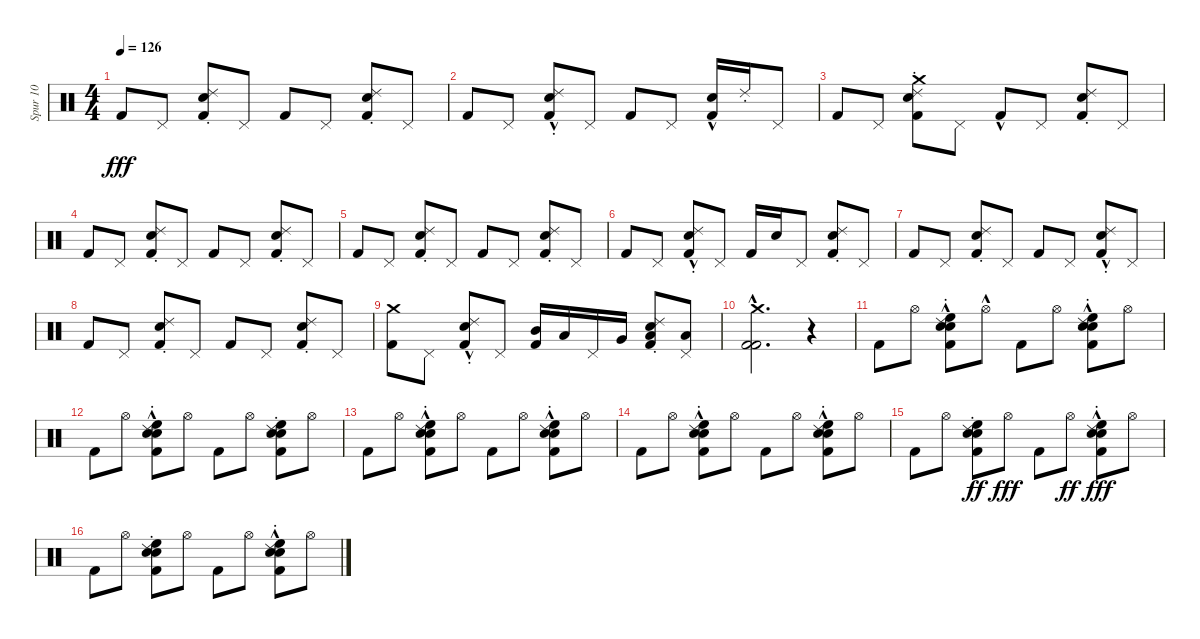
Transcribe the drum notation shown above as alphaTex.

\track ("Spur 10" "Spur 10") {instrument percussion}
\staff {score}
\articulation defaults
\ts (4 4)
\tempo 126
\clef neutral
\ks c "Kick (hit) 2".8{dy fff} "Pedal Hi-Hat (hit)".8
("Kick (hit) 2" "Ride (choke) 2" "Snare (hit) 2").8 "Pedal Hi-Hat (hit)".8 "Kick (hit) 2".8 "Pedal Hi-Hat (hit)".8 ("Snare (hit) 2" "Ride (choke) 2" "Kick (hit) 2").8 "Pedal Hi-Hat (hit)".8 |
"Kick (hit) 2".8 "Pedal Hi-Hat (hit)".8 ("Kick (hit) 2" "Ride (choke) 2"{hac} "Snare (hit) 2").8 "Pedal Hi-Hat (hit)".8 "Kick (hit) 2".8 "Pedal Hi-Hat (hit)".8 ("Snare (hit) 2" "Kick (hit) 2"{hac}).16 "Ride (choke) 2".16 "Pedal Hi-Hat (hit)".8 |
"Kick (hit) 2".8 "Pedal Hi-Hat (hit)".8 ("Kick (hit) 2" "Ride (choke) 2" "Snare (hit) 2" "Crash medium (hit)").8 "Pedal Hi-Hat (hit)".8 "Kick (hit) 2"{hac}.8 "Pedal Hi-Hat (hit)".8 ("Ride (choke) 2" "Kick (hit) 2" "Snare (hit) 2").8 "Pedal Hi-Hat (hit)".8 |
"Kick (hit) 2".8 "Pedal Hi-Hat (hit)".8 ("Ride (choke) 2" "Snare (hit) 2" "Kick (hit) 2").8 "Pedal Hi-Hat (hit)".8 "Kick (hit) 2".8 "Pedal Hi-Hat (hit)".8 ("Kick (hit) 2" "Snare (hit) 2" "Ride (choke) 2").8 "Pedal Hi-Hat (hit)".8 |
"Kick (hit) 2".8 "Pedal Hi-Hat (hit)".8 ("Snare (hit) 2" "Ride (choke) 2" "Kick (hit) 2").8 "Pedal Hi-Hat (hit)".8 "Kick (hit) 2".8 "Pedal Hi-Hat (hit)".8 ("Ride (choke) 2" "Snare (hit) 2" "Kick (hit) 2").8 "Pedal Hi-Hat (hit)".8 |
"Kick (hit) 2".8 "Pedal Hi-Hat (hit)".8 ("Kick (hit) 2" "Ride (choke) 2"{hac} "Snare (hit) 2").8 "Pedal Hi-Hat (hit)".8 "Kick (hit) 2".16 "Snare (hit) 2".16 "Pedal Hi-Hat (hit)".8 ("Ride (choke) 2" "Kick (hit) 2" "Snare (hit) 2").8 "Pedal Hi-Hat (hit)".8 |
"Kick (hit) 2".8 "Pedal Hi-Hat (hit)".8 ("Ride (choke) 2" "Snare (hit) 2" "Kick (hit) 2").8 "Pedal Hi-Hat (hit)".8 "Kick (hit) 2".8 "Pedal Hi-Hat (hit)".8 ("Ride (choke) 2"{hac} "Snare (hit) 2" "Kick (hit) 2").8 "Pedal Hi-Hat (hit)".8 |
"Kick (hit) 2".8 "Pedal Hi-Hat (hit)".8 ("Ride (choke) 2" "Snare (hit) 2" "Kick (hit) 2").8 "Pedal Hi-Hat (hit)".8 "Kick (hit) 2".8 "Pedal Hi-Hat (hit)".8 ("Snare (hit) 2" "Ride (choke) 2" "Kick (hit) 2").8 "Pedal Hi-Hat (hit)".8 |
("Kick (hit) 2" "Crash medium (hit)").8 "Pedal Hi-Hat (hit)".8 ("Ride (choke) 2"{hac} "Kick (hit) 2" "Snare (hit) 2").8 "Pedal Hi-Hat (hit)".8 ("Kick (hit) 2" "Mid Tom (hit)").16 "Low Tom (hit)".16 "Pedal Hi-Hat (hit)".16 "Very Low Tom (hit)".16 ("Kick (hit) 2" "Snare (hit) 2" "Ride (choke) 2" "Low Tom (hit)").8 ("Pedal Hi-Hat (hit)" "Low Floor Tom (hit)").8 |
("Kick (hit) 2"{hac} "Crash medium (hit)"{hac} "Kick (hit) 2"{hac}).2{d} r.4 |
"Kick (hit) 2".8 "Hi-Hat (open)".8 ("Kick (hit) 2" "High Floor Tom (hit)"{hac} "Electric Snare (hit)" "Ride (choke) 2"{hac} "Snare (hit) 2").8 "Hi-Hat (open)"{hac}.8 "Kick (hit) 2".8 "Hi-Hat (open)".8 ("High Floor Tom (hit)"{hac} "Kick (hit) 2" "Ride (choke) 2" "Electric Snare (hit)" "Snare (hit) 2").8 "Hi-Hat (open)".8 |
"Kick (hit) 2".8 "Hi-Hat (open)".8 ("Electric Snare (hit)" "Ride (choke) 2"{hac} "High Floor Tom (hit)"{hac} "Kick (hit) 2" "Snare (hit) 2").8 "Hi-Hat (open)".8 "Kick (hit) 2".8 "Hi-Hat (open)".8 ("High Floor Tom (hit)" "Kick (hit) 2" "Ride (choke) 2" "Electric Snare (hit)" "Snare (hit) 2").8 "Hi-Hat (open)".8 |
"Kick (hit) 2".8 "Hi-Hat (open)".8 ("Kick (hit) 2" "Electric Snare (hit)" "Ride (choke) 2"{hac} "High Floor Tom (hit)"{hac} "Snare (hit) 2").8 "Hi-Hat (open)".8 "Kick (hit) 2".8 "Hi-Hat (open)".8 ("Electric Snare (hit)" "Ride (choke) 2"{hac} "High Floor Tom (hit)"{hac} "Kick (hit) 2" "Snare (hit) 2").8 "Hi-Hat (open)".8 |
"Kick (hit) 2".8 "Hi-Hat (open)".8 ("High Floor Tom (hit)"{hac} "Ride (choke) 2"{hac} "Kick (hit) 2" "Electric Snare (hit)" "Snare (hit) 2").8 "Hi-Hat (open)".8 "Kick (hit) 2".8 "Hi-Hat (open)".8 ("Kick (hit) 2" "Ride (choke) 2"{hac} "Electric Snare (hit)" "High Floor Tom (hit)"{hac} "Snare (hit) 2").8 "Hi-Hat (open)".8 |
"Kick (hit) 2".8 "Hi-Hat (open)".8 ("Snare (hit) 2" "Kick (hit) 2" "Ride (choke) 2" "High Floor Tom (hit)" "Electric Snare (hit)").8{dy ff} "Hi-Hat (open)".8{dy fff} "Kick (hit) 2".8 "Hi-Hat (open)".8{dy ff} ("Electric Snare (hit)" "Kick (hit) 2" "High Floor Tom (hit)"{hac} "Ride (choke) 2" "Snare (hit) 2").8{dy fff} "Hi-Hat (open)".8 |
"Kick (hit) 2".8 "Hi-Hat (open)".8 ("Snare (hit) 2" "High Floor Tom (hit)" "Electric Snare (hit)" "Kick (hit) 2" "Ride (choke) 2").8 "Hi-Hat (open)".8 "Kick (hit) 2".8 "Hi-Hat (open)".8 ("Ride (choke) 2"{hac} "Kick (hit) 2" "Electric Snare (hit)" "High Floor Tom (hit)"{hac} "Snare (hit) 2").8 "Hi-Hat (open)".8
